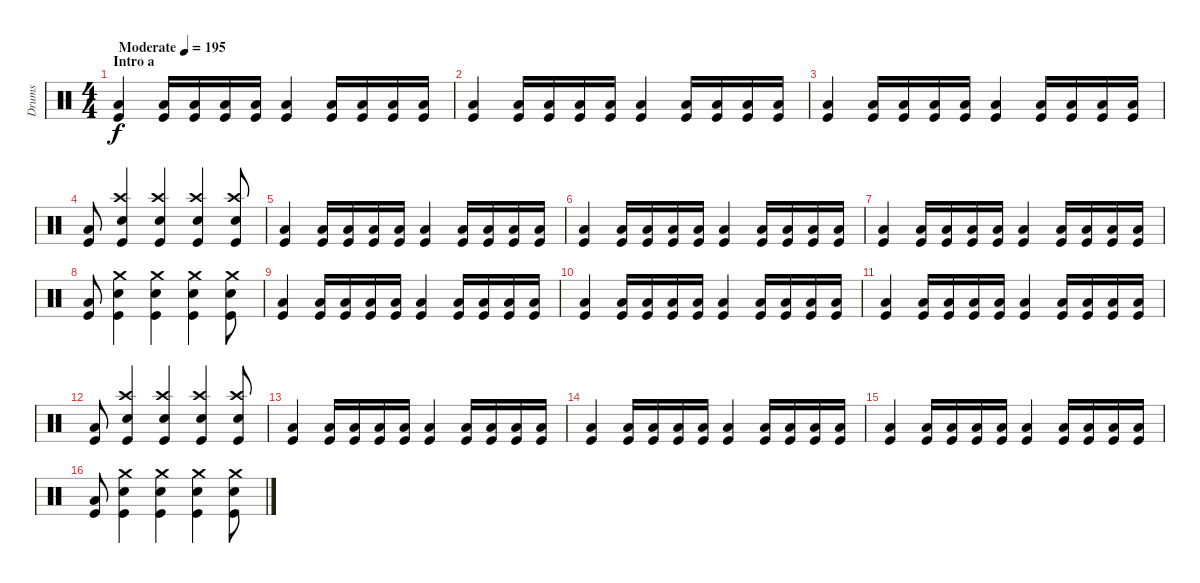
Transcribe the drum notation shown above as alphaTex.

\track ("Drums" "Drums") {instrument percussion}
\staff {score}
\articulation defaults
\ts (4 4)
\section ("" "Intro a")
\tempo (195 "Moderate")
\clef neutral
\ks c
("Low Floor Tom (hit)" "Kick (hit)").4{dy f} ("Low Floor Tom (hit)" "Kick (hit)").16 ("Low Floor Tom (hit)" "Kick (hit)").16 ("Low Floor Tom (hit)" "Kick (hit)").16 ("Low Floor Tom (hit)" "Kick (hit)").16 ("Low Floor Tom (hit)" "Kick (hit)").4 ("Low Floor Tom (hit)" "Kick (hit)").16 ("Low Floor Tom (hit)" "Kick (hit)").16 ("Low Floor Tom (hit)" "Kick (hit)").16 ("Low Floor Tom (hit)" "Kick (hit)").16 |
("Low Floor Tom (hit)" "Kick (hit)").4 ("Low Floor Tom (hit)" "Kick (hit)").16 ("Low Floor Tom (hit)" "Kick (hit)").16 ("Low Floor Tom (hit)" "Kick (hit)").16 ("Low Floor Tom (hit)" "Kick (hit)").16 ("Low Floor Tom (hit)" "Kick (hit)").4 ("Low Floor Tom (hit)" "Kick (hit)").16 ("Low Floor Tom (hit)" "Kick (hit)").16 ("Low Floor Tom (hit)" "Kick (hit)").16 ("Low Floor Tom (hit)" "Kick (hit)").16 |
("Low Floor Tom (hit)" "Kick (hit)").4 ("Low Floor Tom (hit)" "Kick (hit)").16 ("Low Floor Tom (hit)" "Kick (hit)").16 ("Low Floor Tom (hit)" "Kick (hit)").16 ("Low Floor Tom (hit)" "Kick (hit)").16 ("Low Floor Tom (hit)" "Kick (hit)").4 ("Low Floor Tom (hit)" "Kick (hit)").16 ("Low Floor Tom (hit)" "Kick (hit)").16 ("Low Floor Tom (hit)" "Kick (hit)").16 ("Low Floor Tom (hit)" "Kick (hit)").16 |
("Low Floor Tom (hit)" "Kick (hit)").8 ("Crash high (hit)" "Snare (hit) 2" "Kick (hit)").4 ("Crash high (hit)" "Snare (hit) 2" "Kick (hit)").4 ("Crash high (hit)" "Snare (hit) 2" "Kick (hit)").4 ("Crash high (hit)" "Snare (hit) 2" "Kick (hit)").8 |
("Low Floor Tom (hit)" "Kick (hit)").4 ("Low Floor Tom (hit)" "Kick (hit)").16 ("Low Floor Tom (hit)" "Kick (hit)").16 ("Low Floor Tom (hit)" "Kick (hit)").16 ("Low Floor Tom (hit)" "Kick (hit)").16 ("Low Floor Tom (hit)" "Kick (hit)").4 ("Low Floor Tom (hit)" "Kick (hit)").16 ("Low Floor Tom (hit)" "Kick (hit)").16 ("Low Floor Tom (hit)" "Kick (hit)").16 ("Low Floor Tom (hit)" "Kick (hit)").16 |
("Low Floor Tom (hit)" "Kick (hit)").4 ("Low Floor Tom (hit)" "Kick (hit)").16 ("Low Floor Tom (hit)" "Kick (hit)").16 ("Low Floor Tom (hit)" "Kick (hit)").16 ("Low Floor Tom (hit)" "Kick (hit)").16 ("Low Floor Tom (hit)" "Kick (hit)").4 ("Low Floor Tom (hit)" "Kick (hit)").16 ("Low Floor Tom (hit)" "Kick (hit)").16 ("Low Floor Tom (hit)" "Kick (hit)").16 ("Low Floor Tom (hit)" "Kick (hit)").16 |
("Low Floor Tom (hit)" "Kick (hit)").4 ("Low Floor Tom (hit)" "Kick (hit)").16 ("Low Floor Tom (hit)" "Kick (hit)").16 ("Low Floor Tom (hit)" "Kick (hit)").16 ("Low Floor Tom (hit)" "Kick (hit)").16 ("Low Floor Tom (hit)" "Kick (hit)").4 ("Low Floor Tom (hit)" "Kick (hit)").16 ("Low Floor Tom (hit)" "Kick (hit)").16 ("Low Floor Tom (hit)" "Kick (hit)").16 ("Low Floor Tom (hit)" "Kick (hit)").16 |
("Low Floor Tom (hit)" "Kick (hit)").8 ("Crash medium (hit)" "Snare (hit) 2" "Kick (hit)").4 ("Crash medium (hit)" "Snare (hit) 2" "Kick (hit)").4 ("Crash medium (hit)" "Snare (hit) 2" "Kick (hit)").4 ("Crash medium (hit)" "Snare (hit) 2" "Kick (hit)").8 |
("Low Floor Tom (hit)" "Kick (hit)").4 ("Low Floor Tom (hit)" "Kick (hit)").16 ("Low Floor Tom (hit)" "Kick (hit)").16 ("Low Floor Tom (hit)" "Kick (hit)").16 ("Low Floor Tom (hit)" "Kick (hit)").16 ("Low Floor Tom (hit)" "Kick (hit)").4 ("Low Floor Tom (hit)" "Kick (hit)").16 ("Low Floor Tom (hit)" "Kick (hit)").16 ("Low Floor Tom (hit)" "Kick (hit)").16 ("Low Floor Tom (hit)" "Kick (hit)").16 |
("Low Floor Tom (hit)" "Kick (hit)").4 ("Low Floor Tom (hit)" "Kick (hit)").16 ("Low Floor Tom (hit)" "Kick (hit)").16 ("Low Floor Tom (hit)" "Kick (hit)").16 ("Low Floor Tom (hit)" "Kick (hit)").16 ("Low Floor Tom (hit)" "Kick (hit)").4 ("Low Floor Tom (hit)" "Kick (hit)").16 ("Low Floor Tom (hit)" "Kick (hit)").16 ("Low Floor Tom (hit)" "Kick (hit)").16 ("Low Floor Tom (hit)" "Kick (hit)").16 |
("Low Floor Tom (hit)" "Kick (hit)").4 ("Low Floor Tom (hit)" "Kick (hit)").16 ("Low Floor Tom (hit)" "Kick (hit)").16 ("Low Floor Tom (hit)" "Kick (hit)").16 ("Low Floor Tom (hit)" "Kick (hit)").16 ("Low Floor Tom (hit)" "Kick (hit)").4 ("Low Floor Tom (hit)" "Kick (hit)").16 ("Low Floor Tom (hit)" "Kick (hit)").16 ("Low Floor Tom (hit)" "Kick (hit)").16 ("Low Floor Tom (hit)" "Kick (hit)").16 |
("Low Floor Tom (hit)" "Kick (hit)").8 ("Crash high (hit)" "Snare (hit) 2" "Kick (hit)").4 ("Crash high (hit)" "Snare (hit) 2" "Kick (hit)").4 ("Crash high (hit)" "Snare (hit) 2" "Kick (hit)").4 ("Crash high (hit)" "Snare (hit) 2" "Kick (hit)").8 |
("Low Floor Tom (hit)" "Kick (hit)").4 ("Low Floor Tom (hit)" "Kick (hit)").16 ("Low Floor Tom (hit)" "Kick (hit)").16 ("Low Floor Tom (hit)" "Kick (hit)").16 ("Low Floor Tom (hit)" "Kick (hit)").16 ("Low Floor Tom (hit)" "Kick (hit)").4 ("Low Floor Tom (hit)" "Kick (hit)").16 ("Low Floor Tom (hit)" "Kick (hit)").16 ("Low Floor Tom (hit)" "Kick (hit)").16 ("Low Floor Tom (hit)" "Kick (hit)").16 |
("Low Floor Tom (hit)" "Kick (hit)").4 ("Low Floor Tom (hit)" "Kick (hit)").16 ("Low Floor Tom (hit)" "Kick (hit)").16 ("Low Floor Tom (hit)" "Kick (hit)").16 ("Low Floor Tom (hit)" "Kick (hit)").16 ("Low Floor Tom (hit)" "Kick (hit)").4 ("Low Floor Tom (hit)" "Kick (hit)").16 ("Low Floor Tom (hit)" "Kick (hit)").16 ("Low Floor Tom (hit)" "Kick (hit)").16 ("Low Floor Tom (hit)" "Kick (hit)").16 |
("Low Floor Tom (hit)" "Kick (hit)").4 ("Low Floor Tom (hit)" "Kick (hit)").16 ("Low Floor Tom (hit)" "Kick (hit)").16 ("Low Floor Tom (hit)" "Kick (hit)").16 ("Low Floor Tom (hit)" "Kick (hit)").16 ("Low Floor Tom (hit)" "Kick (hit)").4 ("Low Floor Tom (hit)" "Kick (hit)").16 ("Low Floor Tom (hit)" "Kick (hit)").16 ("Low Floor Tom (hit)" "Kick (hit)").16 ("Low Floor Tom (hit)" "Kick (hit)").16 |
("Low Floor Tom (hit)" "Kick (hit)").8 ("Crash medium (hit)" "Snare (hit) 2" "Kick (hit)").4 ("Crash medium (hit)" "Snare (hit) 2" "Kick (hit)").4 ("Crash medium (hit)" "Snare (hit) 2" "Kick (hit)").4 ("Crash medium (hit)" "Snare (hit) 2" "Kick (hit)").8
